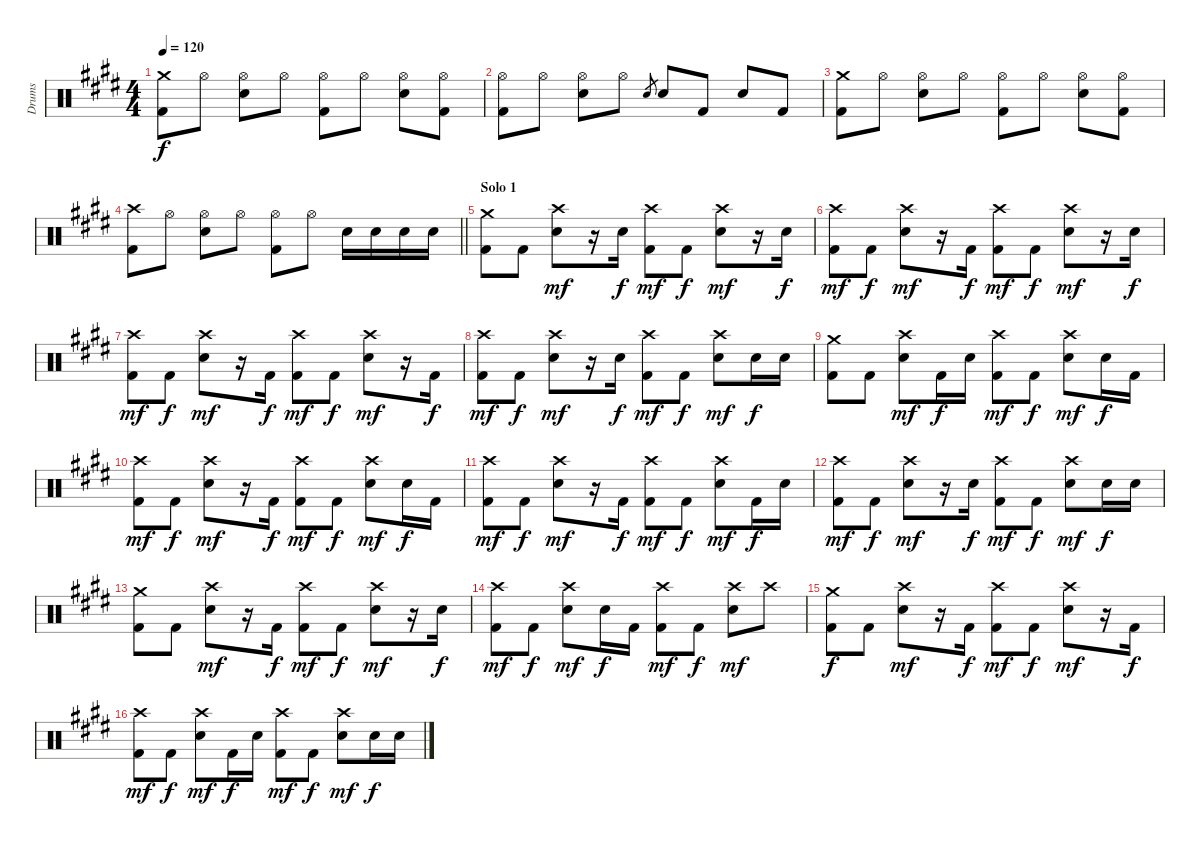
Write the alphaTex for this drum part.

\track ("Drums" "Drums") {instrument percussion}
\staff {score}
\articulation defaults
\ts (4 4)
\tempo 120
\clef neutral
\ks e
("Crash medium (hit)" "Kick (hit) 2").8{dy f} "Hi-Hat (open)".8 ("Hi-Hat (open)" "Electric Snare (hit)").8 "Hi-Hat (open)".8 ("Hi-Hat (open)" "Kick (hit) 2").8 "Hi-Hat (open)".8 ("Hi-Hat (open)" "Electric Snare (hit)").8 ("Hi-Hat (open)" "Kick (hit) 2").8 |
("Hi-Hat (open)" "Kick (hit) 2").8 "Hi-Hat (open)".8 ("Hi-Hat (open)" "Electric Snare (hit)").8 "Hi-Hat (open)".8 "Electric Snare (hit)".8{gr} "Electric Snare (hit)".8 "Kick (hit) 2".8 "Electric Snare (hit)".8 "Kick (hit) 2".8 |
("Crash medium (hit)" "Kick (hit) 2").8 "Hi-Hat (open)".8 ("Hi-Hat (open)" "Electric Snare (hit)").8 "Hi-Hat (open)".8 ("Hi-Hat (open)" "Kick (hit) 2").8 "Hi-Hat (open)".8 ("Hi-Hat (open)" "Electric Snare (hit)").8 ("Hi-Hat (open)" "Kick (hit) 2").8 |
\barLineRight lightlight
("Crash high (hit)" "Kick (hit) 2").8 "Hi-Hat (open)".8 ("Hi-Hat (open)" "Electric Snare (hit)").8 "Hi-Hat (open)".8 ("Hi-Hat (open)" "Kick (hit) 2").8 "Hi-Hat (open)".8 "Electric Snare (hit)".16 "Electric Snare (hit)".16 "Electric Snare (hit)".16 "Electric Snare (hit)".16 |
\section ("" "Solo 1")
("Crash medium (hit)" "Kick (hit) 2").8 "Kick (hit) 2".8 ("Crash high (hit)" "Electric Snare (hit)").8{dy mf} r.16 "Electric Snare (hit)".16{dy f} ("Crash high (hit)" "Kick (hit) 2").8{dy mf} "Kick (hit) 2".8{dy f} ("Crash high (hit)" "Electric Snare (hit)").8{dy mf} r.16 "Electric Snare (hit)".16{dy f} |
("Crash high (hit)" "Kick (hit) 2").8{dy mf} "Kick (hit) 2".8{dy f} ("Crash high (hit)" "Electric Snare (hit)").8{dy mf} r.16 "Kick (hit) 2".16{dy f} ("Crash high (hit)" "Kick (hit) 2").8{dy mf} "Kick (hit) 2".8{dy f} ("Crash high (hit)" "Electric Snare (hit)").8{dy mf} r.16 "Electric Snare (hit)".16{dy f} |
("Crash high (hit)" "Kick (hit) 2").8{dy mf} "Kick (hit) 2".8{dy f} ("Crash high (hit)" "Electric Snare (hit)").8{dy mf} r.16 "Kick (hit) 2".16{dy f} ("Crash high (hit)" "Kick (hit) 2").8{dy mf} "Kick (hit) 2".8{dy f} ("Crash high (hit)" "Electric Snare (hit)").8{dy mf} r.16 "Kick (hit) 2".16{dy f} |
("Crash high (hit)" "Kick (hit) 2").8{dy mf} "Kick (hit) 2".8{dy f} ("Crash high (hit)" "Electric Snare (hit)").8{dy mf} r.16 "Electric Snare (hit)".16{dy f} ("Crash high (hit)" "Kick (hit) 2").8{dy mf} "Kick (hit) 2".8{dy f} ("Crash high (hit)" "Electric Snare (hit)").8{dy mf} "Electric Snare (hit)".16{dy f} "Electric Snare (hit)".16 |
("Crash medium (hit)" "Kick (hit) 2").8 "Kick (hit) 2".8 ("Crash high (hit)" "Electric Snare (hit)").8{dy mf} "Kick (hit) 2".16{dy f} "Electric Snare (hit)".16 ("Crash high (hit)" "Kick (hit) 2").8{dy mf} "Kick (hit) 2".8{dy f} ("Crash high (hit)" "Electric Snare (hit)").8{dy mf} "Electric Snare (hit)".16{dy f} "Kick (hit) 2".16 |
("Crash high (hit)" "Kick (hit) 2").8{dy mf} "Kick (hit) 2".8{dy f} ("Crash high (hit)" "Electric Snare (hit)").8{dy mf} r.16 "Kick (hit) 2".16{dy f} ("Crash high (hit)" "Kick (hit) 2").8{dy mf} "Kick (hit) 2".8{dy f} ("Crash high (hit)" "Electric Snare (hit)").8{dy mf} "Electric Snare (hit)".16{dy f} "Kick (hit) 2".16 |
("Crash high (hit)" "Kick (hit) 2").8{dy mf} "Kick (hit) 2".8{dy f} ("Crash high (hit)" "Electric Snare (hit)").8{dy mf} r.16 "Kick (hit) 2".16{dy f} ("Crash high (hit)" "Kick (hit) 2").8{dy mf} "Kick (hit) 2".8{dy f} ("Crash high (hit)" "Electric Snare (hit)").8{dy mf} "Kick (hit) 2".16{dy f} "Electric Snare (hit)".16 |
("Crash high (hit)" "Kick (hit) 2").8{dy mf} "Kick (hit) 2".8{dy f} ("Crash high (hit)" "Electric Snare (hit)").8{dy mf} r.16 "Electric Snare (hit)".16{dy f} ("Crash high (hit)" "Kick (hit) 2").8{dy mf} "Kick (hit) 2".8{dy f} ("Crash high (hit)" "Electric Snare (hit)").8{dy mf} "Electric Snare (hit)".16{dy f} "Electric Snare (hit)".16 |
("Crash medium (hit)" "Kick (hit) 2").8 "Kick (hit) 2".8 ("Crash high (hit)" "Electric Snare (hit)").8{dy mf} r.16 "Kick (hit) 2".16{dy f} ("Crash high (hit)" "Kick (hit) 2").8{dy mf} "Kick (hit) 2".8{dy f} ("Crash high (hit)" "Electric Snare (hit)").8{dy mf} r.16 "Electric Snare (hit)".16{dy f} |
("Crash high (hit)" "Kick (hit) 2").8{dy mf} "Kick (hit) 2".8{dy f} ("Crash high (hit)" "Electric Snare (hit)").8{dy mf} "Electric Snare (hit)".16{dy f} "Kick (hit) 2".16 ("Crash high (hit)" "Kick (hit) 2").8{dy mf} "Kick (hit) 2".8{dy f} ("Crash high (hit)" "Electric Snare (hit)").8{dy mf} "Crash high (hit)".8 |
("Crash medium (hit)" "Kick (hit) 2").8{dy f} "Kick (hit) 2".8 ("Crash high (hit)" "Electric Snare (hit)").8{dy mf} r.16 "Kick (hit) 2".16{dy f} ("Crash high (hit)" "Kick (hit) 2").8{dy mf} "Kick (hit) 2".8{dy f} ("Crash high (hit)" "Electric Snare (hit)").8{dy mf} r.16 "Kick (hit) 2".16{dy f} |
("Crash high (hit)" "Kick (hit) 2").8{dy mf} "Kick (hit) 2".8{dy f} ("Crash high (hit)" "Electric Snare (hit)").8{dy mf} "Kick (hit) 2".16{dy f} "Electric Snare (hit)".16 ("Crash high (hit)" "Kick (hit) 2").8{dy mf} "Kick (hit) 2".8{dy f} ("Crash high (hit)" "Electric Snare (hit)").8{dy mf} "Electric Snare (hit)".16{dy f} "Electric Snare (hit)".16
